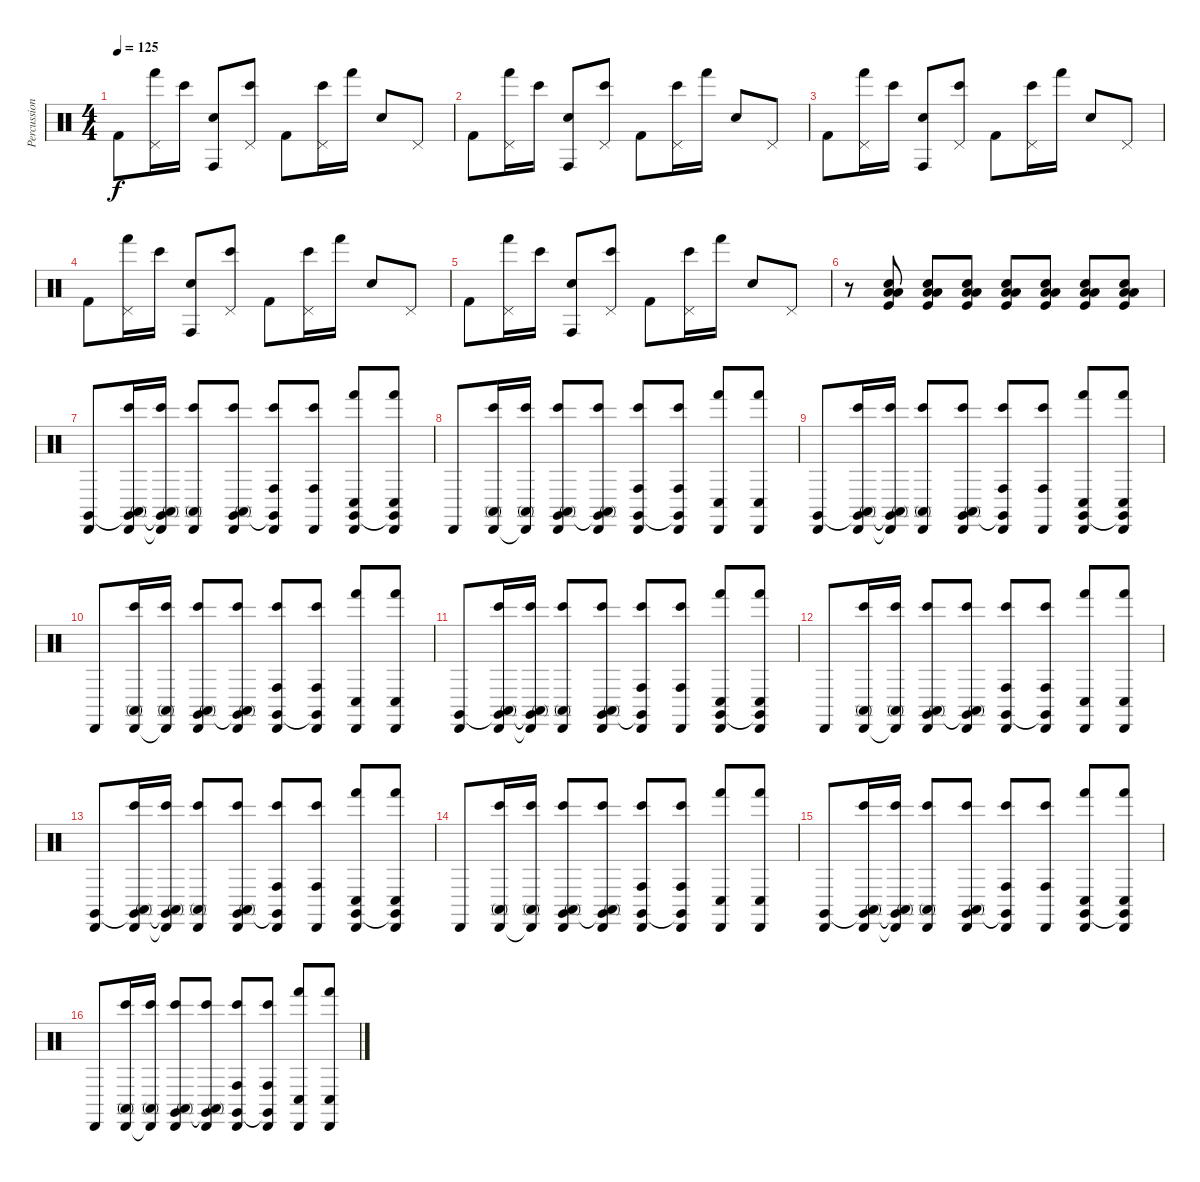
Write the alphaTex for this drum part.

\track ("Percussion" "Percussion") {instrument percussion}
\staff {score}
\articulation defaults
\ts (4 4)
\tempo 125
\clef neutral
\ks c "Kick (hit) 2".8{dy f}
("Pedal Hi-Hat (hit)" "Hand (hit)").16 "Bongo High (hit)".16 ("Electric Snare (hit)" "Conga high (hit)").8 ("Pedal Hi-Hat (hit)" "Bongo High (hit)").8 "Kick (hit) 2".8 ("Pedal Hi-Hat (hit)" "Bongo High (hit)").16 "Hand (hit)".16 "Electric Snare (hit)".8 "Pedal Hi-Hat (hit)".8 |
"Kick (hit) 2".8 ("Pedal Hi-Hat (hit)" "Hand (hit)").16 "Bongo High (hit)".16 ("Electric Snare (hit)" "Conga high (hit)").8 ("Pedal Hi-Hat (hit)" "Bongo High (hit)").8 "Kick (hit) 2".8 ("Pedal Hi-Hat (hit)" "Bongo High (hit)").16 "Hand (hit)".16 "Electric Snare (hit)".8 "Pedal Hi-Hat (hit)".8 |
"Kick (hit) 2".8 ("Pedal Hi-Hat (hit)" "Hand (hit)").16 "Bongo High (hit)".16 ("Electric Snare (hit)" "Conga high (hit)").8 ("Pedal Hi-Hat (hit)" "Bongo High (hit)").8 "Kick (hit) 2".8 ("Pedal Hi-Hat (hit)" "Bongo High (hit)").16 "Hand (hit)".16 "Electric Snare (hit)".8 "Pedal Hi-Hat (hit)".8 |
"Kick (hit) 2".8 ("Pedal Hi-Hat (hit)" "Hand (hit)").16 "Bongo High (hit)".16 ("Electric Snare (hit)" "Conga high (hit)").8 ("Pedal Hi-Hat (hit)" "Bongo High (hit)").8 "Kick (hit) 2".8 ("Pedal Hi-Hat (hit)" "Bongo High (hit)").16 "Hand (hit)".16 "Electric Snare (hit)".8 "Pedal Hi-Hat (hit)".8 |
"Kick (hit) 2".8 ("Pedal Hi-Hat (hit)" "Hand (hit)").16 "Bongo High (hit)".16 ("Electric Snare (hit)" "Conga high (hit)").8 ("Pedal Hi-Hat (hit)" "Bongo High (hit)").8 "Kick (hit) 2".8 ("Pedal Hi-Hat (hit)" "Bongo High (hit)").16 "Hand (hit)".16 "Electric Snare (hit)".8 "Pedal Hi-Hat (hit)".8 |
r.8 ("Low Floor Tom (hit)" "Low Tom (hit)" "Snare (hit) 2" "Kick (hit)").8 ("Low Floor Tom (hit)" "Low Tom (hit)" "Snare (hit) 2" "Kick (hit)").8 ("Low Floor Tom (hit)" "Low Tom (hit)" "Snare (hit) 2" "Kick (hit)").8 ("Low Floor Tom (hit)" "Low Tom (hit)" "Snare (hit) 2" "Kick (hit)").8 ("Low Floor Tom (hit)" "Low Tom (hit)" "Snare (hit) 2" "Kick (hit)").8 ("Low Floor Tom (hit)" "Low Tom (hit)" "Snare (hit) 2" "Kick (hit)").8 ("Low Floor Tom (hit)" "Low Tom (hit)" "Snare (hit) 2" "Kick (hit)").8 |
("Claves (hit)" "Cabasa (hit)").8 ("Claves (hit)"{t} "Bongo High (hit)" "Conga high (mute)" "Cabasa (hit)").16 ("Claves (hit)"{t} "Bongo High (hit)" "Conga high (mute)" "Cabasa (hit)"{t}).16 ("Bongo High (hit)" "Conga high (mute)" "Cabasa (hit)").8 ("Claves (hit)" "Bongo High (hit)" "Conga high (mute)" "Cabasa (hit)").8 ("Claves (hit)"{t} "Bongo High (hit)" "Conga high (hit)" "Cabasa (hit)").8 ("Bongo High (hit)" "Conga high (hit)" "Cabasa (hit)").8 ("Claves (hit)" "Hand (hit)" "Conga low (hit)" "Cabasa (hit)").8 ("Claves (hit)"{t} "Hand (hit)" "Conga low (hit)" "Cabasa (hit)").8 |
"Cabasa (hit)".8 ("Bongo High (hit)" "Conga high (mute)" "Cabasa (hit)").16 ("Bongo High (hit)" "Conga high (mute)" "Cabasa (hit)"{t}).16 ("Claves (hit)" "Bongo High (hit)" "Conga high (mute)" "Cabasa (hit)").8 ("Claves (hit)"{t} "Bongo High (hit)" "Conga high (mute)" "Cabasa (hit)").8 ("Claves (hit)" "Bongo High (hit)" "Conga high (hit)" "Cabasa (hit)").8 ("Claves (hit)"{t} "Bongo High (hit)" "Conga high (hit)" "Cabasa (hit)").8 ("Hand (hit)" "Conga low (hit)" "Cabasa (hit)").8 ("Hand (hit)" "Conga low (hit)" "Cabasa (hit)").8 |
("Claves (hit)" "Cabasa (hit)").8 ("Claves (hit)"{t} "Bongo High (hit)" "Conga high (mute)" "Cabasa (hit)").16 ("Claves (hit)"{t} "Bongo High (hit)" "Conga high (mute)" "Cabasa (hit)"{t}).16 ("Bongo High (hit)" "Conga high (mute)" "Cabasa (hit)").8 ("Claves (hit)" "Bongo High (hit)" "Conga high (mute)" "Cabasa (hit)").8 ("Claves (hit)"{t} "Bongo High (hit)" "Conga high (hit)" "Cabasa (hit)").8 ("Bongo High (hit)" "Conga high (hit)" "Cabasa (hit)").8 ("Claves (hit)" "Hand (hit)" "Conga low (hit)" "Cabasa (hit)").8 ("Claves (hit)"{t} "Hand (hit)" "Conga low (hit)" "Cabasa (hit)").8 |
"Cabasa (hit)".8 ("Bongo High (hit)" "Conga high (mute)" "Cabasa (hit)").16 ("Bongo High (hit)" "Conga high (mute)" "Cabasa (hit)"{t}).16 ("Claves (hit)" "Bongo High (hit)" "Conga high (mute)" "Cabasa (hit)").8 ("Claves (hit)"{t} "Bongo High (hit)" "Conga high (mute)" "Cabasa (hit)").8 ("Claves (hit)" "Bongo High (hit)" "Conga high (hit)" "Cabasa (hit)").8 ("Claves (hit)"{t} "Bongo High (hit)" "Conga high (hit)" "Cabasa (hit)").8 ("Hand (hit)" "Conga low (hit)" "Cabasa (hit)").8 ("Hand (hit)" "Conga low (hit)" "Cabasa (hit)").8 |
("Claves (hit)" "Cabasa (hit)").8 ("Claves (hit)"{t} "Bongo High (hit)" "Conga high (mute)" "Cabasa (hit)").16 ("Claves (hit)"{t} "Bongo High (hit)" "Conga high (mute)" "Cabasa (hit)"{t}).16 ("Bongo High (hit)" "Conga high (mute)" "Cabasa (hit)").8 ("Claves (hit)" "Bongo High (hit)" "Conga high (mute)" "Cabasa (hit)").8 ("Claves (hit)"{t} "Bongo High (hit)" "Conga high (hit)" "Cabasa (hit)").8 ("Bongo High (hit)" "Conga high (hit)" "Cabasa (hit)").8 ("Claves (hit)" "Hand (hit)" "Conga low (hit)" "Cabasa (hit)").8 ("Claves (hit)"{t} "Hand (hit)" "Conga low (hit)" "Cabasa (hit)").8 |
"Cabasa (hit)".8 ("Bongo High (hit)" "Conga high (mute)" "Cabasa (hit)").16 ("Bongo High (hit)" "Conga high (mute)" "Cabasa (hit)"{t}).16 ("Claves (hit)" "Bongo High (hit)" "Conga high (mute)" "Cabasa (hit)").8 ("Claves (hit)"{t} "Bongo High (hit)" "Conga high (mute)" "Cabasa (hit)").8 ("Claves (hit)" "Bongo High (hit)" "Conga high (hit)" "Cabasa (hit)").8 ("Claves (hit)"{t} "Bongo High (hit)" "Conga high (hit)" "Cabasa (hit)").8 ("Hand (hit)" "Conga low (hit)" "Cabasa (hit)").8 ("Hand (hit)" "Conga low (hit)" "Cabasa (hit)").8 |
("Claves (hit)" "Cabasa (hit)").8 ("Claves (hit)"{t} "Bongo High (hit)" "Conga high (mute)" "Cabasa (hit)").16 ("Claves (hit)"{t} "Bongo High (hit)" "Conga high (mute)" "Cabasa (hit)"{t}).16 ("Bongo High (hit)" "Conga high (mute)" "Cabasa (hit)").8 ("Claves (hit)" "Bongo High (hit)" "Conga high (mute)" "Cabasa (hit)").8 ("Claves (hit)"{t} "Bongo High (hit)" "Conga high (hit)" "Cabasa (hit)").8 ("Bongo High (hit)" "Conga high (hit)" "Cabasa (hit)").8 ("Claves (hit)" "Hand (hit)" "Conga low (hit)" "Cabasa (hit)").8 ("Claves (hit)"{t} "Hand (hit)" "Conga low (hit)" "Cabasa (hit)").8 |
"Cabasa (hit)".8 ("Bongo High (hit)" "Conga high (mute)" "Cabasa (hit)").16 ("Bongo High (hit)" "Conga high (mute)" "Cabasa (hit)"{t}).16 ("Claves (hit)" "Bongo High (hit)" "Conga high (mute)" "Cabasa (hit)").8 ("Claves (hit)"{t} "Bongo High (hit)" "Conga high (mute)" "Cabasa (hit)").8 ("Claves (hit)" "Bongo High (hit)" "Conga high (hit)" "Cabasa (hit)").8 ("Claves (hit)"{t} "Bongo High (hit)" "Conga high (hit)" "Cabasa (hit)").8 ("Hand (hit)" "Conga low (hit)" "Cabasa (hit)").8 ("Hand (hit)" "Conga low (hit)" "Cabasa (hit)").8 |
("Claves (hit)" "Cabasa (hit)").8 ("Claves (hit)"{t} "Bongo High (hit)" "Conga high (mute)" "Cabasa (hit)").16 ("Claves (hit)"{t} "Bongo High (hit)" "Conga high (mute)" "Cabasa (hit)"{t}).16 ("Bongo High (hit)" "Conga high (mute)" "Cabasa (hit)").8 ("Claves (hit)" "Bongo High (hit)" "Conga high (mute)" "Cabasa (hit)").8 ("Claves (hit)"{t} "Bongo High (hit)" "Conga high (hit)" "Cabasa (hit)").8 ("Bongo High (hit)" "Conga high (hit)" "Cabasa (hit)").8 ("Claves (hit)" "Hand (hit)" "Conga low (hit)" "Cabasa (hit)").8 ("Claves (hit)"{t} "Hand (hit)" "Conga low (hit)" "Cabasa (hit)").8 |
"Cabasa (hit)".8 ("Bongo High (hit)" "Conga high (mute)" "Cabasa (hit)").16 ("Bongo High (hit)" "Conga high (mute)" "Cabasa (hit)"{t}).16 ("Claves (hit)" "Bongo High (hit)" "Conga high (mute)" "Cabasa (hit)").8 ("Claves (hit)"{t} "Bongo High (hit)" "Conga high (mute)" "Cabasa (hit)").8 ("Claves (hit)" "Bongo High (hit)" "Conga high (hit)" "Cabasa (hit)").8 ("Claves (hit)"{t} "Bongo High (hit)" "Conga high (hit)" "Cabasa (hit)").8 ("Hand (hit)" "Conga low (hit)" "Cabasa (hit)").8 ("Hand (hit)" "Conga low (hit)" "Cabasa (hit)").8
